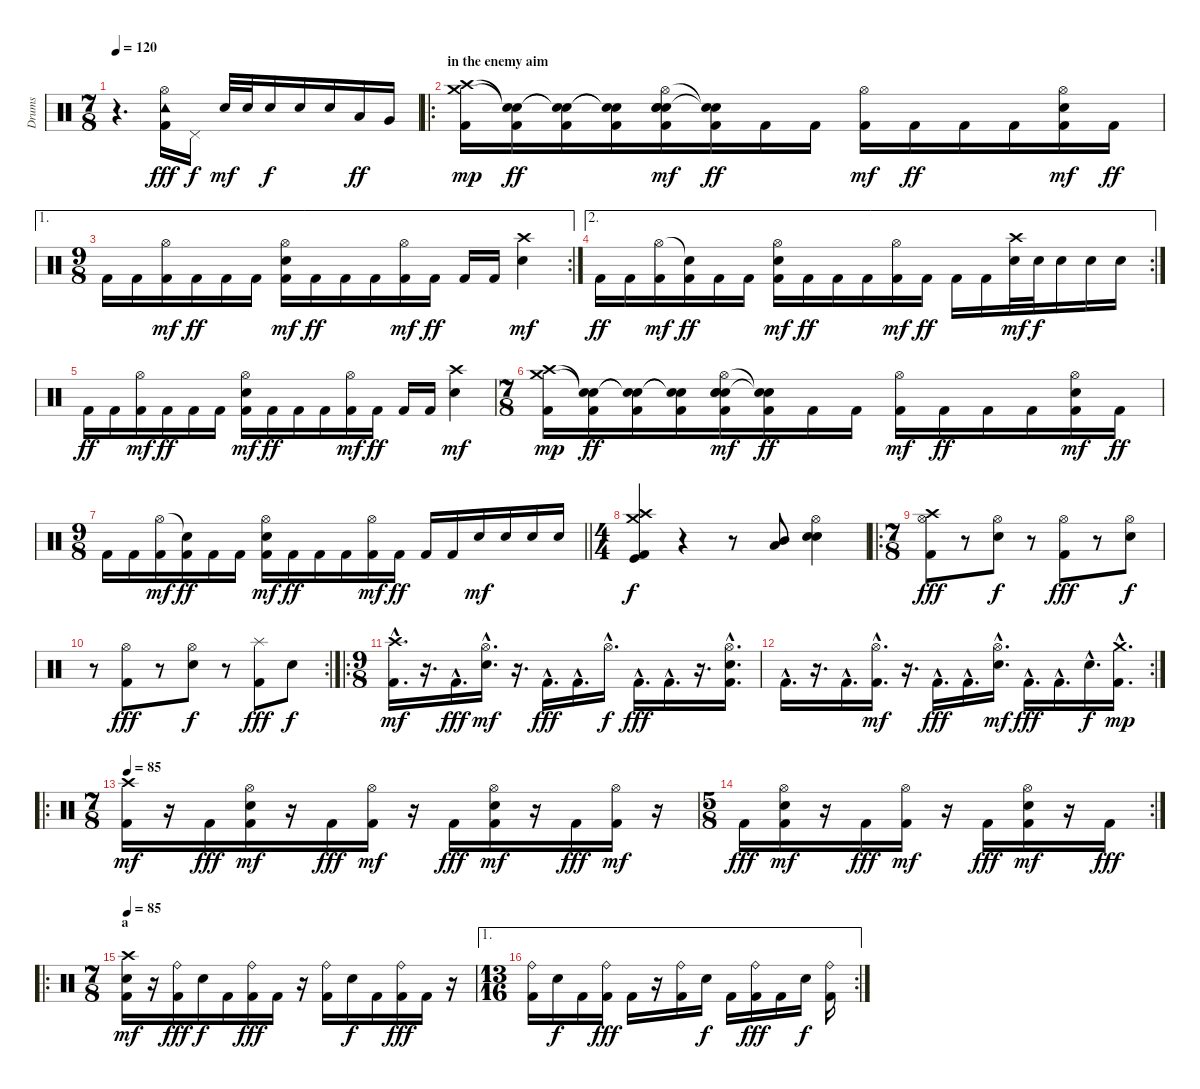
\track ("Drums" "Drums") {instrument percussion}
\staff {score}
\articulation defaults
\ts (7 8)
\tempo 120
\clef neutral
\ks c
r.4{d dy fff} ("Hi-Hat (open)" "Tambourine (hit)" "Kick (hit) 2").16 "Pedal Hi-Hat (hit)".16{dy f} "Electric Snare (hit)".32{dy mf} "Electric Snare (hit)".32 "Electric Snare (hit)".16{dy f} "Electric Snare (hit)".16 "Electric Snare (hit)".16 "Low Tom (hit)".16{dy ff} "Very Low Tom (hit)".16 |
\ro
\section ("" "in the enemy aim")
("Kick (hit) 2" "Crash high (hit)" "Crash medium (hit)").16{dy mp} ("Kick (hit) 2" "Snare (hit)"{t} "Snare (hit)"{t}).16{dy ff} ("Kick (hit) 2" "Snare (hit)"{t} "Snare (hit)"{t}).16 ("Kick (hit) 2" "Snare (hit)"{t} "Snare (hit)"{t}).16 ("Kick (hit) 2" "Hi-Hat (open)" "Electric Snare (hit)" "Snare (hit)"{t} "Snare (hit)").16{dy mf} ("Kick (hit) 2" "Snare (hit)"{t} "Snare (hit)"{t}).16{dy ff} "Kick (hit) 2".16 "Kick (hit) 2".16 ("Kick (hit) 2" "Hi-Hat (open)").16{dy mf} "Kick (hit) 2".16{dy ff} "Kick (hit) 2".16 "Kick (hit) 2".16 ("Kick (hit) 2" "Hi-Hat (open)" "Electric Snare (hit)").16{dy mf} "Kick (hit) 2".16{dy ff} |
\ae 1
\rc 2
\ts (9 8)
"Kick (hit) 2".16 "Kick (hit) 2".16 ("Kick (hit) 2" "Hi-Hat (open)").16{dy mf} "Kick (hit) 2".16{dy ff} "Kick (hit) 2".16 "Kick (hit) 2".16 ("Kick (hit) 2" "Hi-Hat (open)" "Electric Snare (hit)").16{dy mf} "Kick (hit) 2".16{dy ff} "Kick (hit) 2".16 "Kick (hit) 2".16 ("Kick (hit) 2" "Hi-Hat (open)").16{dy mf} "Kick (hit) 2".16{dy ff} "Kick (hit) 2".16 "Kick (hit) 2".16 ("Electric Snare (hit)" "Crash high (hit)").4{dy mf} |
\ae 2
\rc 2 "Kick (hit) 2".16{dy ff} "Kick (hit) 2".16
("Kick (hit) 2" "Hi-Hat (open)").16{dy mf} ("Kick (hit) 2" "Snare (hit)"{t}).16{dy ff} "Kick (hit) 2".16 "Kick (hit) 2".16 ("Kick (hit) 2" "Hi-Hat (open)" "Electric Snare (hit)").16{dy mf} "Kick (hit) 2".16{dy ff} "Kick (hit) 2".16 "Kick (hit) 2".16 ("Kick (hit) 2" "Hi-Hat (open)").16{dy mf} "Kick (hit) 2".16{dy ff} "Kick (hit) 2".16 "Kick (hit) 2".16 ("Electric Snare (hit)" "Crash high (hit)").32{dy mf} "Electric Snare (hit)".32{dy f} "Electric Snare (hit)".16 "Electric Snare (hit)".16 "Electric Snare (hit)".16 |
"Kick (hit) 2".16{dy ff} "Kick (hit) 2".16 ("Kick (hit) 2" "Hi-Hat (open)").16{dy mf} "Kick (hit) 2".16{dy ff} "Kick (hit) 2".16 "Kick (hit) 2".16 ("Kick (hit) 2" "Hi-Hat (open)" "Electric Snare (hit)").16{dy mf} "Kick (hit) 2".16{dy ff} "Kick (hit) 2".16 "Kick (hit) 2".16 ("Kick (hit) 2" "Hi-Hat (open)").16{dy mf} "Kick (hit) 2".16{dy ff} "Kick (hit) 2".16 "Kick (hit) 2".16 ("Electric Snare (hit)" "Crash high (hit)").4{dy mf} |
\ts (7 8)
("Kick (hit) 2" "Crash high (hit)" "Crash medium (hit)").16{dy mp} ("Kick (hit) 2" "Snare (hit)"{t} "Snare (hit)"{t}).16{dy ff} ("Kick (hit) 2" "Snare (hit)"{t} "Snare (hit)"{t}).16 ("Kick (hit) 2" "Snare (hit)"{t} "Snare (hit)"{t}).16 ("Kick (hit) 2" "Hi-Hat (open)" "Electric Snare (hit)" "Snare (hit)" "Snare (hit)").16{dy mf} ("Kick (hit) 2" "Snare (hit)"{t} "Snare (hit)"{t}).16{dy ff} "Kick (hit) 2".16 "Kick (hit) 2".16 ("Kick (hit) 2" "Hi-Hat (open)").16{dy mf} "Kick (hit) 2".16{dy ff} "Kick (hit) 2".16 "Kick (hit) 2".16 ("Kick (hit) 2" "Hi-Hat (open)" "Electric Snare (hit)").16{dy mf} "Kick (hit) 2".16{dy ff} |
\ts (9 8)
\barLineRight lightlight "Kick (hit) 2".16 "Kick (hit) 2".16
("Kick (hit) 2" "Hi-Hat (open)").16{dy mf} ("Kick (hit) 2" "Snare (hit)"{t}).16{dy ff} "Kick (hit) 2".16 "Kick (hit) 2".16 ("Kick (hit) 2" "Hi-Hat (open)" "Electric Snare (hit)").16{dy mf} "Kick (hit) 2".16{dy ff} "Kick (hit) 2".16 "Kick (hit) 2".16 ("Kick (hit) 2" "Hi-Hat (open)").16{dy mf} "Kick (hit) 2".16{dy ff} "Kick (hit) 2".16 "Kick (hit) 2".16 "Electric Snare (hit)".16{dy mf} "Electric Snare (hit)".16 "Electric Snare (hit)".16 "Electric Snare (hit)".16 |
\ts (4 4)
("Kick (hit) 2" "Kick (hit)" "Crash medium (hit)" "Crash high (hit)").4{dy f} r.4 r.8 ("Mid Tom (hit)" "Low Tom (hit)").8 ("Electric Snare (hit)" "Snare (hit) 2" "Hi-Hat (open)").4 |
\ro
\ts (7 8)
("Crash high (hit)" "Hi-Hat (open)" "Kick (hit) 2").8{dy fff} r.8 ("Hi-Hat (open)" "Electric Snare (hit)").8{dy f} r.8 ("Hi-Hat (open)" "Kick (hit) 2").8{dy fff} r.8 ("Hi-Hat (open)" "Electric Snare (hit)").8{dy f} |
\rc 2
r.8 ("Hi-Hat (open)" "Kick (hit) 2").8{dy fff} r.8 ("Hi-Hat (open)" "Electric Snare (hit)").8{dy f} r.8 ("Splash (hit)" "Kick (hit) 2").8{dy fff} "Electric Snare (hit)".8{dy f} |
\ro
\ts (9 8)
("Kick (hit) 2"{hac} "Crash high (hit)"{hac}).16{d dy mf} r.16{d} "Kick (hit) 2"{hac}.16{d dy fff} ("Electric Snare (hit)"{hac} "Hi-Hat (open)"{hac}).16{d dy mf} r.16{d} "Kick (hit) 2"{hac}.16{d dy fff} "Kick (hit) 2"{hac}.16{d} "Hi-Hat (open)"{hac}.16{d dy f} "Kick (hit) 2"{hac}.16{d dy fff} "Kick (hit) 2"{hac}.16{d} r.16{d} ("Kick (hit) 2"{hac} "Electric Snare (hit)"{hac} "Hi-Hat (open)"{hac}).16{d} |
\rc 2 "Kick (hit) 2"{hac}.16{d}
r.16{d} "Kick (hit) 2"{hac}.16{d} ("Kick (hit) 2"{hac} "Hi-Hat (open)"{hac}).16{d dy mf} r.16{d} "Kick (hit) 2"{hac}.16{d dy fff} "Kick (hit) 2"{hac}.16{d} ("Electric Snare (hit)"{hac} "Hi-Hat (open)"{hac}).16{d dy mf} "Kick (hit) 2"{hac}.16{d dy fff} "Kick (hit) 2"{hac}.16{d} "Electric Snare (hit)"{hac}.16{d dy f} ("Kick (hit) 2"{hac} "Crash medium (hit)"{hac}).16{d dy mp} |
\ro
\ts (7 8)
\tempo 85
("Kick (hit) 2" "Crash high (hit)").16{dy mf} r.16 "Kick (hit) 2".16{dy fff} ("Kick (hit) 2" "Electric Snare (hit)" "Hi-Hat (open)").16{dy mf} r.16 "Kick (hit) 2".16{dy fff} ("Kick (hit) 2" "Hi-Hat (open)").16{dy mf} r.16 "Kick (hit) 2".16{dy fff} ("Kick (hit) 2" "Electric Snare (hit)" "Hi-Hat (open)").16{dy mf} r.16 "Kick (hit) 2".16{dy fff} ("Kick (hit) 2" "Hi-Hat (open)").16{dy mf} r.16 |
\rc 2
\ts (5 8)
"Kick (hit) 2".16{dy fff} ("Kick (hit) 2" "Electric Snare (hit)" "Hi-Hat (open)").16{dy mf} r.16 "Kick (hit) 2".16{dy fff} ("Kick (hit) 2" "Hi-Hat (open)").16{dy mf} r.16 "Kick (hit) 2".16{dy fff} ("Kick (hit) 2" "Electric Snare (hit)" "Hi-Hat (open)").16{dy mf} r.16 "Kick (hit) 2".16{dy fff} |
\ro
\ts (7 8)
\section ("" "a")
\tempo 85
("Kick (hit) 2" "Snare (hit)" "Crash high (hit)").16{dy mf} r.16 ("Kick (hit) 2" "Ride (bell)").16{dy fff} "Electric Snare (hit)".16{dy f} "Kick (hit) 2".16 ("Kick (hit) 2" "Ride (bell)").16{dy fff} "Kick (hit) 2".16 r.16 ("Kick (hit) 2" "Ride (bell)").16 "Electric Snare (hit)".16{dy f} "Kick (hit) 2".16 ("Kick (hit) 2" "Ride (bell)").16{dy fff} "Kick (hit) 2".16 r.16 |
\ae 1
\rc 2
\ts (13 16)
("Kick (hit) 2" "Ride (bell)").16 "Electric Snare (hit)".16{dy f} "Kick (hit) 2".16 ("Kick (hit) 2" "Ride (bell)").16{dy fff} "Kick (hit) 2".16 r.16 ("Kick (hit) 2" "Ride (bell)").16 "Electric Snare (hit)".16{dy f} "Kick (hit) 2".16 ("Kick (hit) 2" "Ride (bell)").16{dy fff} "Kick (hit) 2".16 "Electric Snare (hit)".16{dy f} ("Kick (hit) 2" "Ride (bell)").16
